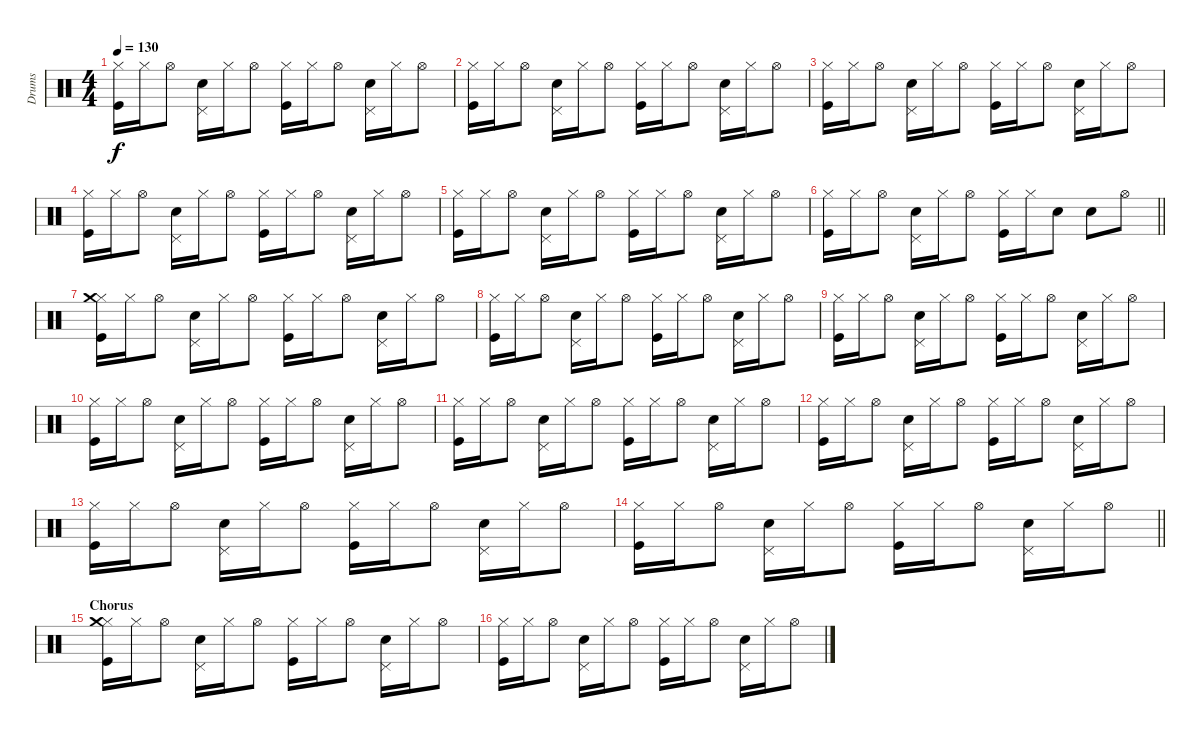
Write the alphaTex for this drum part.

\track ("Drums" "Drums") {instrument percussion}
\staff {score}
\articulation defaults
\ts (4 4)
\tempo 130
\clef neutral
\ks c
("Hi-Hat (closed)" "Kick (hit)").16{dy f} "Hi-Hat (closed)".16 "Hi-Hat (open)".8 ("Pedal Hi-Hat (hit)" "Electric Snare (hit)").16 "Hi-Hat (closed)".16 "Hi-Hat (open)".8 ("Hi-Hat (closed)" "Kick (hit)").16 "Hi-Hat (closed)".16 "Hi-Hat (open)".8 ("Pedal Hi-Hat (hit)" "Electric Snare (hit)").16 "Hi-Hat (closed)".16 "Hi-Hat (open)".8 |
("Hi-Hat (closed)" "Kick (hit)").16 "Hi-Hat (closed)".16 "Hi-Hat (open)".8 ("Pedal Hi-Hat (hit)" "Electric Snare (hit)").16 "Hi-Hat (closed)".16 "Hi-Hat (open)".8 ("Hi-Hat (closed)" "Kick (hit)").16 "Hi-Hat (closed)".16 "Hi-Hat (open)".8 ("Pedal Hi-Hat (hit)" "Electric Snare (hit)").16 "Hi-Hat (closed)".16 "Hi-Hat (open)".8 |
("Hi-Hat (closed)" "Kick (hit)").16 "Hi-Hat (closed)".16 "Hi-Hat (open)".8 ("Pedal Hi-Hat (hit)" "Electric Snare (hit)").16 "Hi-Hat (closed)".16 "Hi-Hat (open)".8 ("Hi-Hat (closed)" "Kick (hit)").16 "Hi-Hat (closed)".16 "Hi-Hat (open)".8 ("Pedal Hi-Hat (hit)" "Electric Snare (hit)").16 "Hi-Hat (closed)".16 "Hi-Hat (open)".8 |
("Hi-Hat (closed)" "Kick (hit)").16 "Hi-Hat (closed)".16 "Hi-Hat (open)".8 ("Pedal Hi-Hat (hit)" "Electric Snare (hit)").16 "Hi-Hat (closed)".16 "Hi-Hat (open)".8 ("Hi-Hat (closed)" "Kick (hit)").16 "Hi-Hat (closed)".16 "Hi-Hat (open)".8 ("Pedal Hi-Hat (hit)" "Electric Snare (hit)").16 "Hi-Hat (closed)".16 "Hi-Hat (open)".8 |
("Hi-Hat (closed)" "Kick (hit)").16 "Hi-Hat (closed)".16 "Hi-Hat (open)".8 ("Pedal Hi-Hat (hit)" "Electric Snare (hit)").16 "Hi-Hat (closed)".16 "Hi-Hat (open)".8 ("Hi-Hat (closed)" "Kick (hit)").16 "Hi-Hat (closed)".16 "Hi-Hat (open)".8 ("Pedal Hi-Hat (hit)" "Electric Snare (hit)").16 "Hi-Hat (closed)".16 "Hi-Hat (open)".8 |
\barLineRight lightlight
("Hi-Hat (closed)" "Kick (hit)").16 "Hi-Hat (closed)".16 "Hi-Hat (open)".8 ("Pedal Hi-Hat (hit)" "Electric Snare (hit)").16 "Hi-Hat (closed)".16 "Hi-Hat (open)".8 ("Hi-Hat (closed)" "Kick (hit)").16 "Hi-Hat (closed)".16 "Electric Snare (hit)".8 "Electric Snare (hit)".8 "Hi-Hat (open)".8 |
("Hi-Hat (closed)" "Crash medium (hit)" "Kick (hit)").16 "Hi-Hat (closed)".16 "Hi-Hat (open)".8 ("Pedal Hi-Hat (hit)" "Electric Snare (hit)").16 "Hi-Hat (closed)".16 "Hi-Hat (open)".8 ("Hi-Hat (closed)" "Kick (hit)").16 "Hi-Hat (closed)".16 "Hi-Hat (open)".8 ("Pedal Hi-Hat (hit)" "Electric Snare (hit)").16 "Hi-Hat (closed)".16 "Hi-Hat (open)".8 |
("Hi-Hat (closed)" "Kick (hit)").16 "Hi-Hat (closed)".16 "Hi-Hat (open)".8 ("Pedal Hi-Hat (hit)" "Electric Snare (hit)").16 "Hi-Hat (closed)".16 "Hi-Hat (open)".8 ("Hi-Hat (closed)" "Kick (hit)").16 "Hi-Hat (closed)".16 "Hi-Hat (open)".8 ("Pedal Hi-Hat (hit)" "Electric Snare (hit)").16 "Hi-Hat (closed)".16 "Hi-Hat (open)".8 |
("Hi-Hat (closed)" "Kick (hit)").16 "Hi-Hat (closed)".16 "Hi-Hat (open)".8 ("Pedal Hi-Hat (hit)" "Electric Snare (hit)").16 "Hi-Hat (closed)".16 "Hi-Hat (open)".8 ("Hi-Hat (closed)" "Kick (hit)").16 "Hi-Hat (closed)".16 "Hi-Hat (open)".8 ("Pedal Hi-Hat (hit)" "Electric Snare (hit)").16 "Hi-Hat (closed)".16 "Hi-Hat (open)".8 |
("Hi-Hat (closed)" "Kick (hit)").16 "Hi-Hat (closed)".16 "Hi-Hat (open)".8 ("Pedal Hi-Hat (hit)" "Electric Snare (hit)").16 "Hi-Hat (closed)".16 "Hi-Hat (open)".8 ("Hi-Hat (closed)" "Kick (hit)").16 "Hi-Hat (closed)".16 "Hi-Hat (open)".8 ("Pedal Hi-Hat (hit)" "Electric Snare (hit)").16 "Hi-Hat (closed)".16 "Hi-Hat (open)".8 |
("Hi-Hat (closed)" "Kick (hit)").16 "Hi-Hat (closed)".16 "Hi-Hat (open)".8 ("Pedal Hi-Hat (hit)" "Electric Snare (hit)").16 "Hi-Hat (closed)".16 "Hi-Hat (open)".8 ("Hi-Hat (closed)" "Kick (hit)").16 "Hi-Hat (closed)".16 "Hi-Hat (open)".8 ("Pedal Hi-Hat (hit)" "Electric Snare (hit)").16 "Hi-Hat (closed)".16 "Hi-Hat (open)".8 |
("Hi-Hat (closed)" "Kick (hit)").16 "Hi-Hat (closed)".16 "Hi-Hat (open)".8 ("Pedal Hi-Hat (hit)" "Electric Snare (hit)").16 "Hi-Hat (closed)".16 "Hi-Hat (open)".8 ("Hi-Hat (closed)" "Kick (hit)").16 "Hi-Hat (closed)".16 "Hi-Hat (open)".8 ("Pedal Hi-Hat (hit)" "Electric Snare (hit)").16 "Hi-Hat (closed)".16 "Hi-Hat (open)".8 |
("Hi-Hat (closed)" "Kick (hit)").16 "Hi-Hat (closed)".16 "Hi-Hat (open)".8 ("Pedal Hi-Hat (hit)" "Electric Snare (hit)").16 "Hi-Hat (closed)".16 "Hi-Hat (open)".8 ("Hi-Hat (closed)" "Kick (hit)").16 "Hi-Hat (closed)".16 "Hi-Hat (open)".8 ("Pedal Hi-Hat (hit)" "Electric Snare (hit)").16 "Hi-Hat (closed)".16 "Hi-Hat (open)".8 |
\barLineRight lightlight
("Hi-Hat (closed)" "Kick (hit)").16 "Hi-Hat (closed)".16 "Hi-Hat (open)".8 ("Pedal Hi-Hat (hit)" "Electric Snare (hit)").16 "Hi-Hat (closed)".16 "Hi-Hat (open)".8 ("Hi-Hat (closed)" "Kick (hit)").16 "Hi-Hat (closed)".16 "Hi-Hat (open)".8 ("Pedal Hi-Hat (hit)" "Electric Snare (hit)").16 "Hi-Hat (closed)".16 "Hi-Hat (open)".8 |
\section ("" "Chorus")
("Hi-Hat (closed)" "Crash medium (hit)" "Kick (hit)").16 "Hi-Hat (closed)".16 "Hi-Hat (open)".8 ("Pedal Hi-Hat (hit)" "Electric Snare (hit)").16 "Hi-Hat (closed)".16 "Hi-Hat (open)".8 ("Hi-Hat (closed)" "Kick (hit)").16 "Hi-Hat (closed)".16 "Hi-Hat (open)".8 ("Pedal Hi-Hat (hit)" "Electric Snare (hit)").16 "Hi-Hat (closed)".16 "Hi-Hat (open)".8 |
("Hi-Hat (closed)" "Kick (hit)").16 "Hi-Hat (closed)".16 "Hi-Hat (open)".8 ("Pedal Hi-Hat (hit)" "Electric Snare (hit)").16 "Hi-Hat (closed)".16 "Hi-Hat (open)".8 ("Hi-Hat (closed)" "Kick (hit)").16 "Hi-Hat (closed)".16 "Hi-Hat (open)".8 ("Pedal Hi-Hat (hit)" "Electric Snare (hit)").16 "Hi-Hat (closed)".16 "Hi-Hat (open)".8
